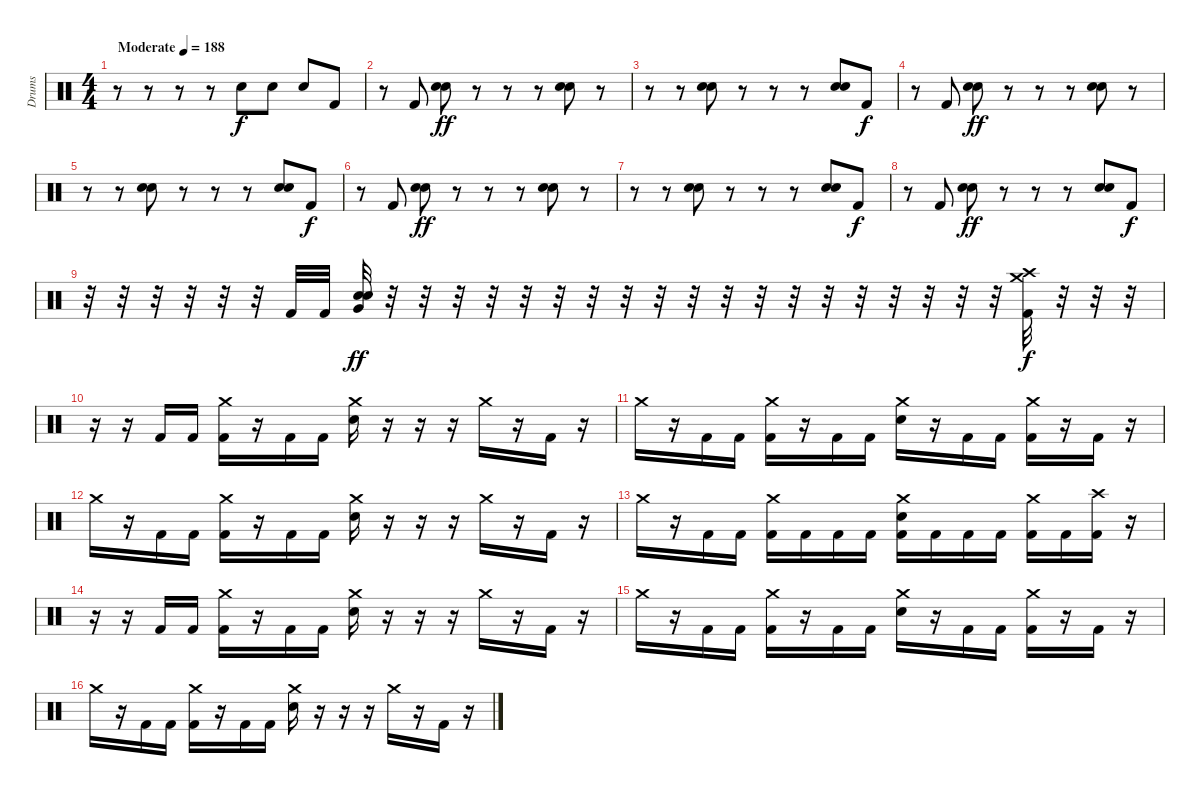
\track ("Drums" "Drums") {instrument percussion}
\staff {score}
\articulation defaults
\ts (4 4)
\tempo (188 "Moderate")
\clef neutral
\ks c
r.8{dy f} r.8 r.8 r.8 "Snare (hit) 2".8 "Snare (hit) 2".8 "Snare (hit) 2".8 "Kick (hit) 2".8 |
r.8 "Kick (hit) 2".8 ("Hand Clap (hit)" "Snare (hit) 2").8{dy ff} r.8 r.8 r.8 ("Hand Clap (hit)" "Snare (hit) 2").8 r.8 |
r.8 r.8 ("Hand Clap (hit)" "Snare (hit) 2").8 r.8 r.8 r.8 ("Hand Clap (hit)" "Snare (hit) 2").8 "Kick (hit) 2".8{dy f} |
r.8 "Kick (hit) 2".8 ("Hand Clap (hit)" "Snare (hit) 2").8{dy ff} r.8 r.8 r.8 ("Hand Clap (hit)" "Snare (hit) 2").8 r.8 |
r.8 r.8 ("Hand Clap (hit)" "Snare (hit) 2").8 r.8 r.8 r.8 ("Hand Clap (hit)" "Snare (hit) 2").8 "Kick (hit) 2".8{dy f} |
r.8 "Kick (hit) 2".8 ("Hand Clap (hit)" "Snare (hit) 2").8{dy ff} r.8 r.8 r.8 ("Hand Clap (hit)" "Snare (hit) 2").8 r.8 |
r.8 r.8 ("Hand Clap (hit)" "Snare (hit) 2").8 r.8 r.8 r.8 ("Hand Clap (hit)" "Snare (hit) 2").8 "Kick (hit) 2".8{dy f} |
r.8 "Kick (hit) 2".8 ("Hand Clap (hit)" "Snare (hit) 2").8{dy ff} r.8 r.8 r.8 ("Hand Clap (hit)" "Snare (hit) 2").8 "Kick (hit) 2".8{dy f} |
r.32 r.32 r.32 r.32 r.32 r.32 "Kick (hit) 2".32 "Kick (hit) 2".32 ("Hand Clap (hit)" "Snare (hit) 2" "Very Low Tom (hit)").32{dy ff} r.32 r.32 r.32 r.32 r.32 r.32 r.32 r.32 r.32 r.32 r.32 r.32 r.32 r.32 r.32 r.32 r.32 r.32 r.32 ("Crash medium (hit)" "Crash high (hit)" "Kick (hit) 2").32{dy f} r.32 r.32 r.32 |
r.16 r.16 "Kick (hit) 2".16 "Kick (hit) 2".16 ("Crash medium (hit)" "Kick (hit) 2").16 r.16 "Kick (hit) 2".16 "Kick (hit) 2".16 ("Crash medium (hit)" "Snare (hit) 2").16 r.16 r.16 r.16 "Crash medium (hit)".16 r.16 "Kick (hit) 2".16 r.16 |
"Crash medium (hit)".16 r.16 "Kick (hit) 2".16 "Kick (hit) 2".16 ("Crash medium (hit)" "Kick (hit) 2").16 r.16 "Kick (hit) 2".16 "Kick (hit) 2".16 ("Crash medium (hit)" "Snare (hit) 2").16 r.16 "Kick (hit) 2".16 "Kick (hit) 2".16 ("Crash medium (hit)" "Kick (hit) 2").16 r.16 "Kick (hit) 2".16 r.16 |
"Crash medium (hit)".16 r.16 "Kick (hit) 2".16 "Kick (hit) 2".16 ("Crash medium (hit)" "Kick (hit) 2").16 r.16 "Kick (hit) 2".16 "Kick (hit) 2".16 ("Crash medium (hit)" "Snare (hit) 2").16 r.16 r.16 r.16 "Crash medium (hit)".16 r.16 "Kick (hit) 2".16 r.16 |
"Crash medium (hit)".16 r.16 "Kick (hit) 2".16 "Kick (hit) 2".16 ("Crash medium (hit)" "Kick (hit) 2").16 "Kick (hit) 2".16 "Kick (hit) 2".16 "Kick (hit) 2".16 ("Crash medium (hit)" "Snare (hit) 2" "Kick (hit) 2").16 "Kick (hit) 2".16 "Kick (hit) 2".16 "Kick (hit) 2".16 ("Crash medium (hit)" "Kick (hit) 2").16 "Kick (hit) 2".16 ("Crash high (hit)" "Kick (hit) 2").16 r.16 |
r.16 r.16 "Kick (hit) 2".16 "Kick (hit) 2".16 ("Crash medium (hit)" "Kick (hit) 2").16 r.16 "Kick (hit) 2".16 "Kick (hit) 2".16 ("Crash medium (hit)" "Snare (hit) 2").16 r.16 r.16 r.16 "Crash medium (hit)".16 r.16 "Kick (hit) 2".16 r.16 |
"Crash medium (hit)".16 r.16 "Kick (hit) 2".16 "Kick (hit) 2".16 ("Crash medium (hit)" "Kick (hit) 2").16 r.16 "Kick (hit) 2".16 "Kick (hit) 2".16 ("Crash medium (hit)" "Snare (hit) 2").16 r.16 "Kick (hit) 2".16 "Kick (hit) 2".16 ("Crash medium (hit)" "Kick (hit) 2").16 r.16 "Kick (hit) 2".16 r.16 |
"Crash medium (hit)".16 r.16 "Kick (hit) 2".16 "Kick (hit) 2".16 ("Crash medium (hit)" "Kick (hit) 2").16 r.16 "Kick (hit) 2".16 "Kick (hit) 2".16 ("Crash medium (hit)" "Snare (hit) 2").16 r.16 r.16 r.16 "Crash medium (hit)".16 r.16 "Kick (hit) 2".16 r.16
